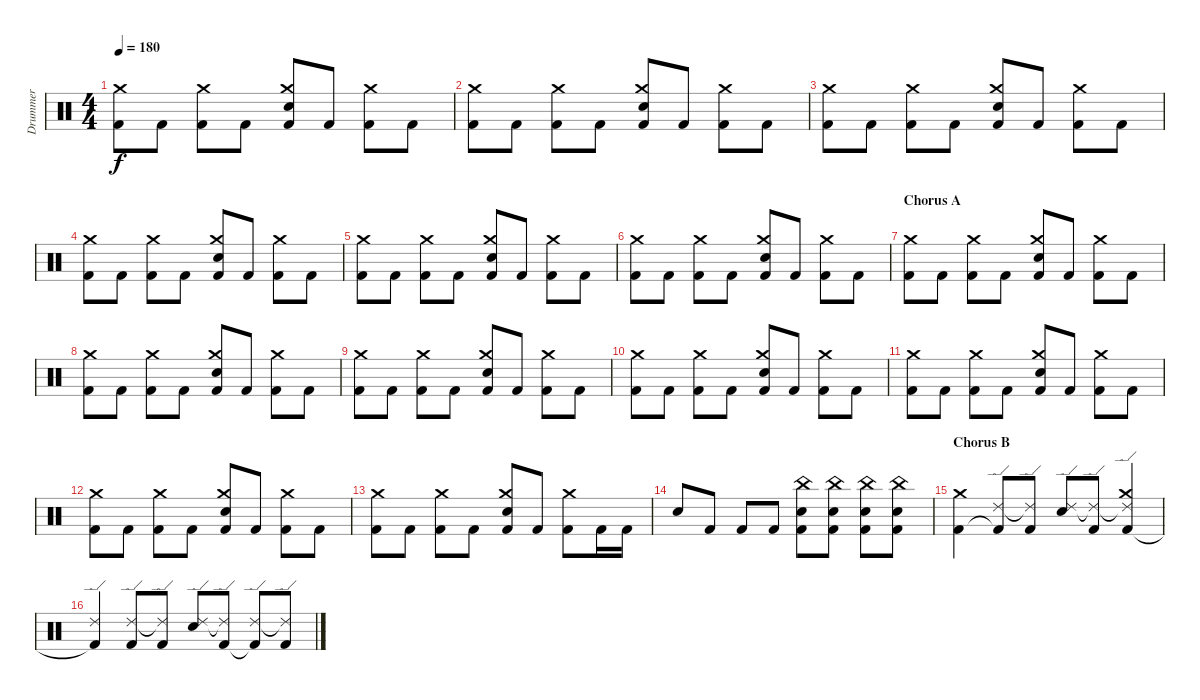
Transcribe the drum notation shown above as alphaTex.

\track ("Drummer" "Drummer") {instrument percussion}
\staff {score}
\articulation defaults
\ts (4 4)
\tempo 180
\clef neutral
\ks c
("Kick (hit) 2" "Crash medium (hit)").8{dy f} "Kick (hit) 2".8 ("Kick (hit) 2" "Crash medium (hit)").8 "Kick (hit) 2".8 ("Kick (hit) 2" "Snare (hit) 2" "Crash medium (hit)").8 "Kick (hit) 2".8 ("Kick (hit) 2" "Crash medium (hit)").8 "Kick (hit) 2".8 |
("Kick (hit) 2" "Crash medium (hit)").8 "Kick (hit) 2".8 ("Kick (hit) 2" "Crash medium (hit)").8 "Kick (hit) 2".8 ("Kick (hit) 2" "Snare (hit) 2" "Crash medium (hit)").8 "Kick (hit) 2".8 ("Kick (hit) 2" "Crash medium (hit)").8 "Kick (hit) 2".8 |
("Kick (hit) 2" "Crash medium (hit)").8 "Kick (hit) 2".8 ("Kick (hit) 2" "Crash medium (hit)").8 "Kick (hit) 2".8 ("Kick (hit) 2" "Snare (hit) 2" "Crash medium (hit)").8 "Kick (hit) 2".8 ("Kick (hit) 2" "Crash medium (hit)").8 "Kick (hit) 2".8 |
("Kick (hit) 2" "Crash medium (hit)").8 "Kick (hit) 2".8 ("Kick (hit) 2" "Crash medium (hit)").8 "Kick (hit) 2".8 ("Kick (hit) 2" "Snare (hit) 2" "Crash medium (hit)").8 "Kick (hit) 2".8 ("Kick (hit) 2" "Crash medium (hit)").8 "Kick (hit) 2".8 |
("Kick (hit) 2" "Crash medium (hit)").8 "Kick (hit) 2".8 ("Kick (hit) 2" "Crash medium (hit)").8 "Kick (hit) 2".8 ("Kick (hit) 2" "Snare (hit) 2" "Crash medium (hit)").8 "Kick (hit) 2".8 ("Kick (hit) 2" "Crash medium (hit)").8 "Kick (hit) 2".8 |
("Kick (hit) 2" "Crash medium (hit)").8 "Kick (hit) 2".8 ("Kick (hit) 2" "Crash medium (hit)").8 "Kick (hit) 2".8 ("Kick (hit) 2" "Snare (hit) 2" "Crash medium (hit)").8 "Kick (hit) 2".8 ("Kick (hit) 2" "Crash medium (hit)").8 "Kick (hit) 2".8 |
\section ("" "Chorus A")
("Kick (hit) 2" "Crash medium (hit)").8 "Kick (hit) 2".8 ("Kick (hit) 2" "Crash medium (hit)").8 "Kick (hit) 2".8 ("Kick (hit) 2" "Snare (hit) 2" "Crash medium (hit)").8 "Kick (hit) 2".8 ("Kick (hit) 2" "Crash medium (hit)").8 "Kick (hit) 2".8 |
("Kick (hit) 2" "Crash medium (hit)").8 "Kick (hit) 2".8 ("Kick (hit) 2" "Crash medium (hit)").8 "Kick (hit) 2".8 ("Kick (hit) 2" "Snare (hit) 2" "Crash medium (hit)").8 "Kick (hit) 2".8 ("Kick (hit) 2" "Crash medium (hit)").8 "Kick (hit) 2".8 |
("Kick (hit) 2" "Crash medium (hit)").8 "Kick (hit) 2".8 ("Kick (hit) 2" "Crash medium (hit)").8 "Kick (hit) 2".8 ("Kick (hit) 2" "Snare (hit) 2" "Crash medium (hit)").8 "Kick (hit) 2".8 ("Kick (hit) 2" "Crash medium (hit)").8 "Kick (hit) 2".8 |
("Kick (hit) 2" "Crash medium (hit)").8 "Kick (hit) 2".8 ("Kick (hit) 2" "Crash medium (hit)").8 "Kick (hit) 2".8 ("Kick (hit) 2" "Snare (hit) 2" "Crash medium (hit)").8 "Kick (hit) 2".8 ("Kick (hit) 2" "Crash medium (hit)").8 "Kick (hit) 2".8 |
("Kick (hit) 2" "Crash medium (hit)").8 "Kick (hit) 2".8 ("Kick (hit) 2" "Crash medium (hit)").8 "Kick (hit) 2".8 ("Kick (hit) 2" "Snare (hit) 2" "Crash medium (hit)").8 "Kick (hit) 2".8 ("Kick (hit) 2" "Crash medium (hit)").8 "Kick (hit) 2".8 |
("Kick (hit) 2" "Crash medium (hit)").8 "Kick (hit) 2".8 ("Kick (hit) 2" "Crash medium (hit)").8 "Kick (hit) 2".8 ("Kick (hit) 2" "Snare (hit) 2" "Crash medium (hit)").8 "Kick (hit) 2".8 ("Kick (hit) 2" "Crash medium (hit)").8 "Kick (hit) 2".8 |
("Kick (hit) 2" "Crash medium (hit)").8 "Kick (hit) 2".8 ("Kick (hit) 2" "Crash medium (hit)").8 "Kick (hit) 2".8 ("Kick (hit) 2" "Snare (hit) 2" "Crash medium (hit)").8 "Kick (hit) 2".8 ("Kick (hit) 2" "Crash medium (hit)").8 "Kick (hit) 2".16 "Kick (hit) 2".16 |
"Snare (hit) 2".8 "Kick (hit) 2".8 "Kick (hit) 2".8 "Kick (hit) 2".8 ("Kick (hit) 2" "Snare (hit) 2" "China (hit)").8 ("Kick (hit) 2" "Snare (hit) 2" "China (hit)").8 ("Kick (hit) 2" "Snare (hit) 2" "China (hit)").8 ("Kick (hit) 2" "Snare (hit) 2" "China (hit)").8 |
\section ("" "Chorus B")
("Kick (hit) 2" "Crash medium (hit)").4 ("Kick (hit) 2"{t} "Ride (edge) 2").8 ("Kick (hit) 2" "Ride (edge) 2"{t}).8 ("Snare (hit) 2" "Ride (edge) 2").8 ("Kick (hit) 2" "Ride (edge) 2"{t}).8 ("Kick (hit) 2" "Ride (edge) 2"{t} "Crash medium (hit)").4 |
("Kick (hit) 2"{t} "Ride (edge) 2").4 ("Kick (hit) 2" "Ride (edge) 2").8 ("Kick (hit) 2" "Ride (edge) 2"{t}).8 ("Snare (hit) 2" "Ride (edge) 2").8 ("Kick (hit) 2" "Ride (edge) 2"{t}).8 ("Kick (hit) 2"{t} "Ride (edge) 2").8 ("Kick (hit) 2" "Ride (edge) 2"{t}).8
